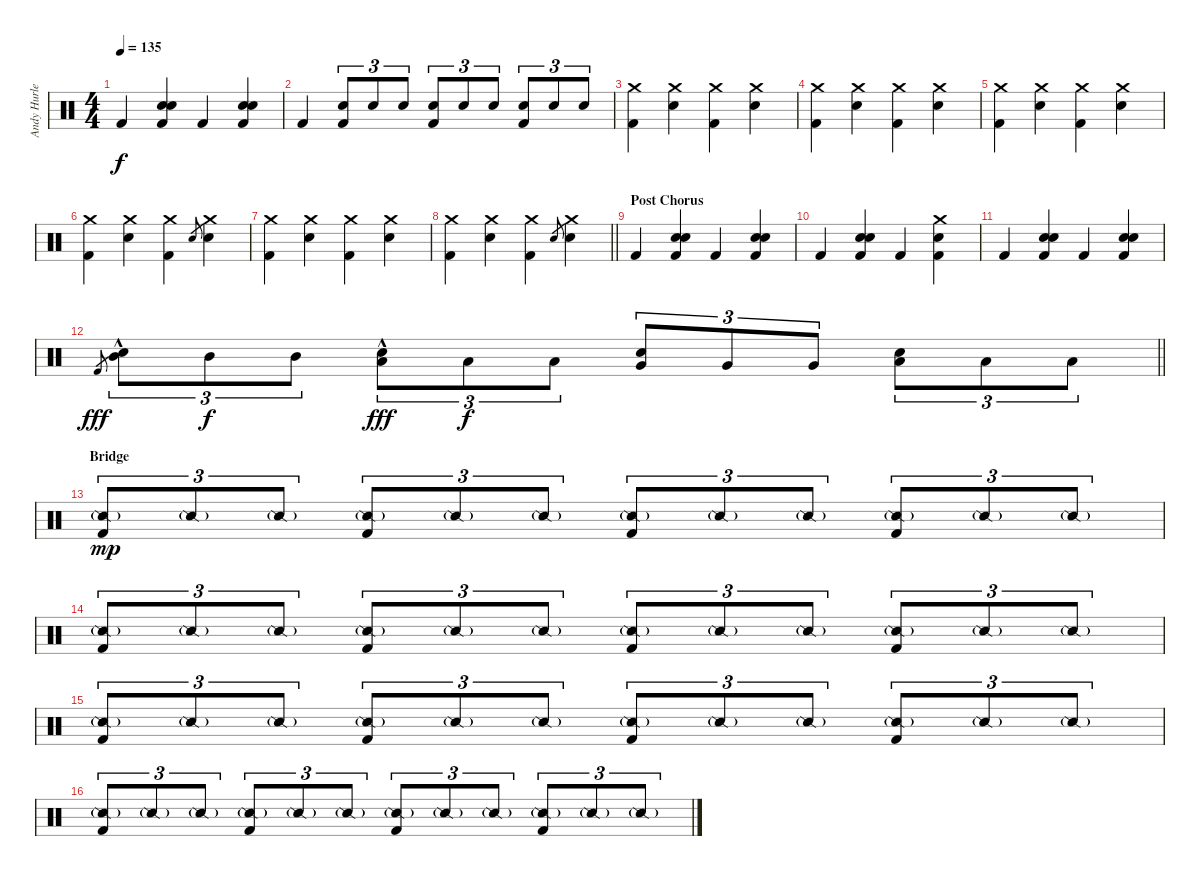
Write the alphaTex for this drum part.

\track ("Andy Hurley" "Andy Hurle") {instrument percussion}
\staff {score}
\articulation defaults
\ts (4 4)
\tempo 135
\clef neutral
\ks c "Kick (hit) 2".4{dy f}
("Electric Snare (hit)" "Electric Snare (hit)" "Kick (hit) 2").4 "Kick (hit) 2".4 ("Electric Snare (hit)" "Electric Snare (hit)" "Kick (hit) 2").4 |
"Kick (hit) 2".4 ("Electric Snare (hit)" "Kick (hit) 2").8{tu (3 2)} "Electric Snare (hit)".8{tu (3 2)} "Electric Snare (hit)".8{tu (3 2)} ("Electric Snare (hit)" "Kick (hit) 2").8{tu (3 2)} "Electric Snare (hit)".8{tu (3 2)} "Electric Snare (hit)".8{tu (3 2)} ("Electric Snare (hit)" "Kick (hit) 2").8{tu (3 2)} "Electric Snare (hit)".8{tu (3 2)} "Electric Snare (hit)".8{tu (3 2)} |
("Crash medium (hit)" "Kick (hit) 2").4 ("Crash medium (hit)" "Electric Snare (hit)").4 ("Crash medium (hit)" "Kick (hit) 2").4 ("Crash medium (hit)" "Electric Snare (hit)").4 |
("Crash medium (hit)" "Kick (hit) 2").4 ("Crash medium (hit)" "Electric Snare (hit)").4 ("Crash medium (hit)" "Kick (hit) 2").4 ("Crash medium (hit)" "Electric Snare (hit)").4 |
("Crash medium (hit)" "Kick (hit) 2").4 ("Crash medium (hit)" "Electric Snare (hit)").4 ("Crash medium (hit)" "Kick (hit) 2").4 ("Crash medium (hit)" "Electric Snare (hit)").4 |
("Crash medium (hit)" "Kick (hit) 2").4 ("Crash medium (hit)" "Electric Snare (hit)").4 ("Crash medium (hit)" "Kick (hit) 2").4 "Electric Snare (hit)".8{gr} ("Crash medium (hit)" "Electric Snare (hit)").4 |
("Crash medium (hit)" "Kick (hit) 2").4 ("Crash medium (hit)" "Electric Snare (hit)").4 ("Crash medium (hit)" "Kick (hit) 2").4 ("Crash medium (hit)" "Electric Snare (hit)").4 |
\barLineRight lightlight
("Crash medium (hit)" "Kick (hit) 2").4 ("Crash medium (hit)" "Electric Snare (hit)").4 ("Crash medium (hit)" "Kick (hit) 2").4 "Electric Snare (hit)".8{gr} ("Crash medium (hit)" "Electric Snare (hit)").4 |
\section ("" "Post Chorus")
"Kick (hit) 2".4 ("Electric Snare (hit)" "Electric Snare (hit)" "Kick (hit) 2").4 "Kick (hit) 2".4 ("Electric Snare (hit)" "Electric Snare (hit)" "Kick (hit) 2").4 |
"Kick (hit) 2".4 ("Electric Snare (hit)" "Electric Snare (hit)" "Kick (hit) 2").4 "Kick (hit) 2".4 ("Crash medium (hit)" "Electric Snare (hit)" "Kick (hit) 2").4 |
"Kick (hit) 2".4 ("Electric Snare (hit)" "Electric Snare (hit)" "Kick (hit) 2").4 "Kick (hit) 2".4 ("Electric Snare (hit)" "Electric Snare (hit)" "Kick (hit) 2").4 |
\barLineRight lightlight "Kick (hit) 2".8{gr dy fff}
("Mid Tom (hit)" "Electric Snare (hit)"{hac}).8{tu (3 2) volume 12} "Mid Tom (hit)".8{tu (3 2) dy f} "Mid Tom (hit)".8{tu (3 2)} ("Low Tom (hit)" "Electric Snare (hit)"{hac}).8{tu (3 2) dy fff} "Low Tom (hit)".8{tu (3 2) dy f} "Low Tom (hit)".8{tu (3 2)} ("Very Low Tom (hit)" "Electric Snare (hit)").8{tu (3 2)} "Very Low Tom (hit)".8{tu (3 2)} "Very Low Tom (hit)".8{tu (3 2)} ("Low Floor Tom (hit)" "Electric Snare (hit)").8{tu (3 2)} "Low Floor Tom (hit)".8{tu (3 2)} "Low Floor Tom (hit)".8{tu (3 2)} |
\section ("" "Bridge")
("Snare (side stick) 2"{g} "Kick (hit) 2").8{tu (3 2) dy mp volume 11} "Snare (side stick) 2"{g}.8{tu (3 2)} "Snare (side stick) 2"{g}.8{tu (3 2)} ("Snare (side stick) 2"{g} "Kick (hit) 2").8{tu (3 2)} "Snare (side stick) 2"{g}.8{tu (3 2)} "Snare (side stick) 2"{g}.8{tu (3 2)} ("Snare (side stick) 2"{g} "Kick (hit) 2").8{tu (3 2)} "Snare (side stick) 2"{g}.8{tu (3 2)} "Snare (side stick) 2"{g}.8{tu (3 2)} ("Snare (side stick) 2"{g} "Kick (hit) 2").8{tu (3 2)} "Snare (side stick) 2"{g}.8{tu (3 2)} "Snare (side stick) 2"{g}.8{tu (3 2)} |
("Snare (side stick) 2"{g} "Kick (hit) 2").8{tu (3 2)} "Snare (side stick) 2"{g}.8{tu (3 2)} "Snare (side stick) 2"{g}.8{tu (3 2)} ("Snare (side stick) 2"{g} "Kick (hit) 2").8{tu (3 2)} "Snare (side stick) 2"{g}.8{tu (3 2)} "Snare (side stick) 2"{g}.8{tu (3 2)} ("Snare (side stick) 2"{g} "Kick (hit) 2").8{tu (3 2)} "Snare (side stick) 2"{g}.8{tu (3 2)} "Snare (side stick) 2"{g}.8{tu (3 2)} ("Snare (side stick) 2"{g} "Kick (hit) 2").8{tu (3 2)} "Snare (side stick) 2"{g}.8{tu (3 2)} "Snare (side stick) 2"{g}.8{tu (3 2)} |
("Snare (side stick) 2"{g} "Kick (hit) 2").8{tu (3 2)} "Snare (side stick) 2"{g}.8{tu (3 2)} "Snare (side stick) 2"{g}.8{tu (3 2)} ("Snare (side stick) 2"{g} "Kick (hit) 2").8{tu (3 2)} "Snare (side stick) 2"{g}.8{tu (3 2)} "Snare (side stick) 2"{g}.8{tu (3 2)} ("Snare (side stick) 2"{g} "Kick (hit) 2").8{tu (3 2)} "Snare (side stick) 2"{g}.8{tu (3 2)} "Snare (side stick) 2"{g}.8{tu (3 2)} ("Snare (side stick) 2"{g} "Kick (hit) 2").8{tu (3 2)} "Snare (side stick) 2"{g}.8{tu (3 2)} "Snare (side stick) 2"{g}.8{tu (3 2)} |
("Snare (side stick) 2"{g} "Kick (hit) 2").8{tu (3 2)} "Snare (side stick) 2"{g}.8{tu (3 2)} "Snare (side stick) 2"{g}.8{tu (3 2)} ("Snare (side stick) 2"{g} "Kick (hit) 2").8{tu (3 2)} "Snare (side stick) 2"{g}.8{tu (3 2)} "Snare (side stick) 2"{g}.8{tu (3 2)} ("Snare (side stick) 2"{g} "Kick (hit) 2").8{tu (3 2)} "Snare (side stick) 2"{g}.8{tu (3 2)} "Snare (side stick) 2"{g}.8{tu (3 2)} ("Snare (side stick) 2"{g} "Kick (hit) 2").8{tu (3 2)} "Snare (side stick) 2"{g}.8{tu (3 2)} "Snare (side stick) 2"{g}.8{tu (3 2)}
